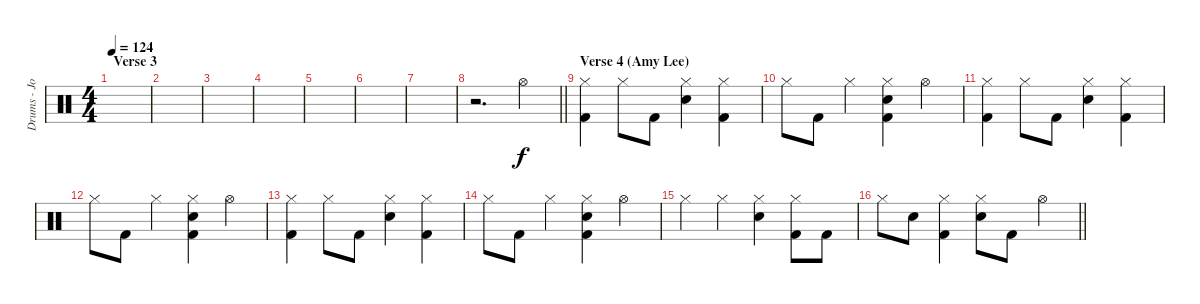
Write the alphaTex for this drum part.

\track ("Drums - John Humphrey" "Drums - Jo") {instrument percussion}
\staff {score}
\articulation defaults
\ts (4 4)
\section ("" "Verse 3")
\tempo 124
\clef neutral
\ks c
|
|
|
|
|
|
|
\barLineRight lightlight
r.2{d} "Hi-Hat (open)".4 |
\section ("" "Verse 4 (Amy Lee)")
("Hi-Hat (closed)" "Kick (hit) 2").4 "Hi-Hat (closed)".8 "Kick (hit) 2".8 ("Hi-Hat (closed)" "Electric Snare (hit)").4 ("Hi-Hat (closed)" "Kick (hit) 2").4 |
"Hi-Hat (closed)".8 "Kick (hit) 2".8 "Hi-Hat (closed)".4 ("Hi-Hat (closed)" "Electric Snare (hit)" "Kick (hit) 2").4 "Hi-Hat (open)".4 |
("Hi-Hat (closed)" "Kick (hit) 2").4 "Hi-Hat (closed)".8 "Kick (hit) 2".8 ("Hi-Hat (closed)" "Electric Snare (hit)").4 ("Hi-Hat (closed)" "Kick (hit) 2").4 |
"Hi-Hat (closed)".8 "Kick (hit) 2".8 "Hi-Hat (closed)".4 ("Hi-Hat (closed)" "Electric Snare (hit)" "Kick (hit) 2").4 "Hi-Hat (open)".4 |
("Hi-Hat (closed)" "Kick (hit) 2").4 "Hi-Hat (closed)".8 "Kick (hit) 2".8 ("Hi-Hat (closed)" "Electric Snare (hit)").4 ("Hi-Hat (closed)" "Kick (hit) 2").4 |
"Hi-Hat (closed)".8 "Kick (hit) 2".8 "Hi-Hat (closed)".4 ("Hi-Hat (closed)" "Electric Snare (hit)" "Kick (hit) 2").4 "Hi-Hat (open)".4 |
"Hi-Hat (closed)".4 "Hi-Hat (closed)".4 ("Hi-Hat (closed)" "Electric Snare (hit)").4 ("Hi-Hat (closed)" "Kick (hit) 2").8 "Kick (hit) 2".8 |
\barLineRight lightlight "Hi-Hat (closed)".8 "Electric Snare (hit)".8
("Hi-Hat (closed)" "Kick (hit) 2").4 ("Hi-Hat (closed)" "Electric Snare (hit)").8 "Kick (hit) 2".8 "Hi-Hat (open)".4
